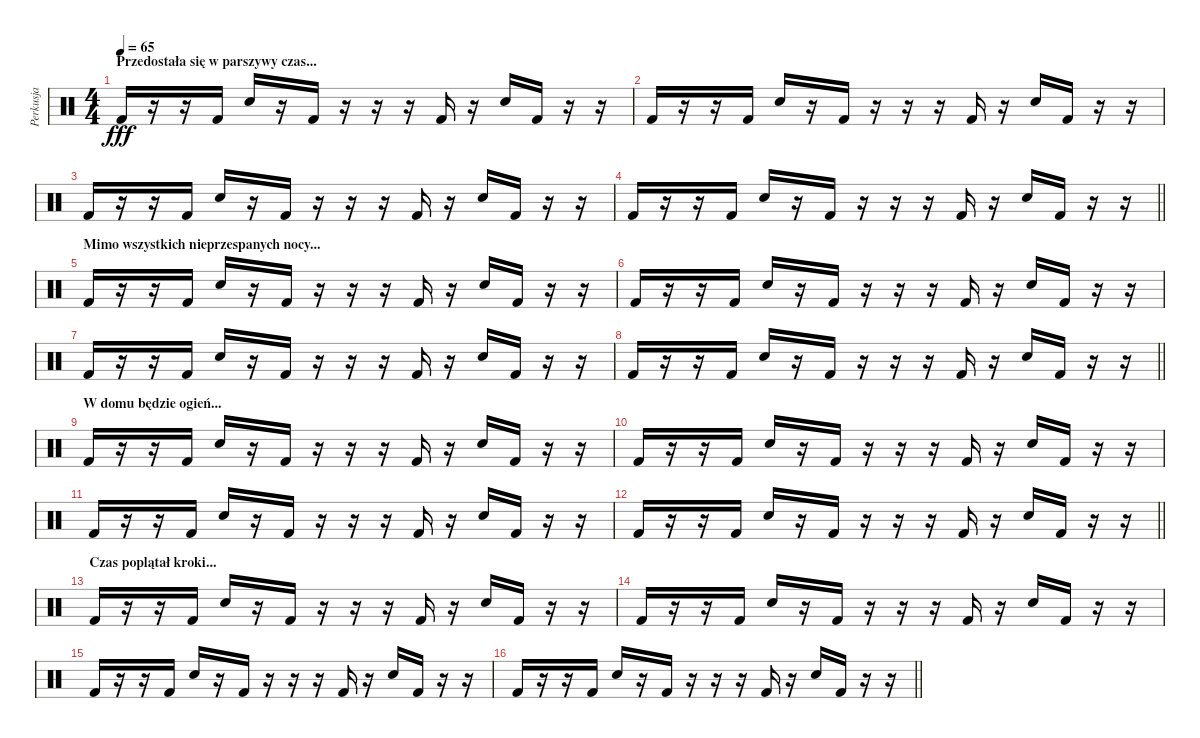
\track ("Perkusja" "Perkusja") {instrument percussion}
\staff {score}
\articulation defaults
\ts (4 4)
\section ("" "Przedostała się w parszywy czas...")
\tempo 65
\clef neutral
\ks c "Kick (hit) 2".16{dy fff}
r.16 r.16 "Kick (hit) 2".16 "Snare (hit) 2".16 r.16 "Kick (hit) 2".16 r.16 r.16 r.16 "Kick (hit) 2".16 r.16 "Snare (hit) 2".16 "Kick (hit) 2".16 r.16 r.16 |
"Kick (hit) 2".16 r.16 r.16 "Kick (hit) 2".16 "Snare (hit) 2".16 r.16 "Kick (hit) 2".16 r.16 r.16 r.16 "Kick (hit) 2".16 r.16 "Snare (hit) 2".16 "Kick (hit) 2".16 r.16 r.16 |
"Kick (hit) 2".16 r.16 r.16 "Kick (hit) 2".16 "Snare (hit) 2".16 r.16 "Kick (hit) 2".16 r.16 r.16 r.16 "Kick (hit) 2".16 r.16 "Snare (hit) 2".16 "Kick (hit) 2".16 r.16 r.16 |
\barLineRight lightlight "Kick (hit) 2".16
r.16 r.16 "Kick (hit) 2".16 "Snare (hit) 2".16 r.16 "Kick (hit) 2".16 r.16 r.16 r.16 "Kick (hit) 2".16 r.16 "Snare (hit) 2".16 "Kick (hit) 2".16 r.16 r.16 |
\section ("" "Mimo wszystkich nieprzespanych nocy...")
"Kick (hit) 2".16 r.16 r.16 "Kick (hit) 2".16 "Snare (hit) 2".16 r.16 "Kick (hit) 2".16 r.16 r.16 r.16 "Kick (hit) 2".16 r.16 "Snare (hit) 2".16 "Kick (hit) 2".16 r.16 r.16 |
"Kick (hit) 2".16 r.16 r.16 "Kick (hit) 2".16 "Snare (hit) 2".16 r.16 "Kick (hit) 2".16 r.16 r.16 r.16 "Kick (hit) 2".16 r.16 "Snare (hit) 2".16 "Kick (hit) 2".16 r.16 r.16 |
"Kick (hit) 2".16 r.16 r.16 "Kick (hit) 2".16 "Snare (hit) 2".16 r.16 "Kick (hit) 2".16 r.16 r.16 r.16 "Kick (hit) 2".16 r.16 "Snare (hit) 2".16 "Kick (hit) 2".16 r.16 r.16 |
\barLineRight lightlight "Kick (hit) 2".16
r.16 r.16 "Kick (hit) 2".16 "Snare (hit) 2".16 r.16 "Kick (hit) 2".16 r.16 r.16 r.16 "Kick (hit) 2".16 r.16 "Snare (hit) 2".16 "Kick (hit) 2".16 r.16 r.16 |
\section ("" "W domu będzie ogień...")
"Kick (hit) 2".16 r.16 r.16 "Kick (hit) 2".16 "Snare (hit) 2".16 r.16 "Kick (hit) 2".16 r.16 r.16 r.16 "Kick (hit) 2".16 r.16 "Snare (hit) 2".16 "Kick (hit) 2".16 r.16 r.16 |
"Kick (hit) 2".16 r.16 r.16 "Kick (hit) 2".16 "Snare (hit) 2".16 r.16 "Kick (hit) 2".16 r.16 r.16 r.16 "Kick (hit) 2".16 r.16 "Snare (hit) 2".16 "Kick (hit) 2".16 r.16 r.16 |
"Kick (hit) 2".16 r.16 r.16 "Kick (hit) 2".16 "Snare (hit) 2".16 r.16 "Kick (hit) 2".16 r.16 r.16 r.16 "Kick (hit) 2".16 r.16 "Snare (hit) 2".16 "Kick (hit) 2".16 r.16 r.16 |
\barLineRight lightlight "Kick (hit) 2".16
r.16 r.16 "Kick (hit) 2".16 "Snare (hit) 2".16 r.16 "Kick (hit) 2".16 r.16 r.16 r.16 "Kick (hit) 2".16 r.16 "Snare (hit) 2".16 "Kick (hit) 2".16 r.16 r.16 |
\section ("" "Czas poplątał kroki...")
"Kick (hit) 2".16 r.16 r.16 "Kick (hit) 2".16 "Snare (hit) 2".16 r.16 "Kick (hit) 2".16 r.16 r.16 r.16 "Kick (hit) 2".16 r.16 "Snare (hit) 2".16 "Kick (hit) 2".16 r.16 r.16 |
"Kick (hit) 2".16 r.16 r.16 "Kick (hit) 2".16 "Snare (hit) 2".16 r.16 "Kick (hit) 2".16 r.16 r.16 r.16 "Kick (hit) 2".16 r.16 "Snare (hit) 2".16 "Kick (hit) 2".16 r.16 r.16 |
"Kick (hit) 2".16 r.16 r.16 "Kick (hit) 2".16 "Snare (hit) 2".16 r.16 "Kick (hit) 2".16 r.16 r.16 r.16 "Kick (hit) 2".16 r.16 "Snare (hit) 2".16 "Kick (hit) 2".16 r.16 r.16 |
\barLineRight lightlight "Kick (hit) 2".16
r.16 r.16 "Kick (hit) 2".16 "Snare (hit) 2".16 r.16 "Kick (hit) 2".16 r.16 r.16 r.16 "Kick (hit) 2".16 r.16 "Snare (hit) 2".16 "Kick (hit) 2".16 r.16 r.16
